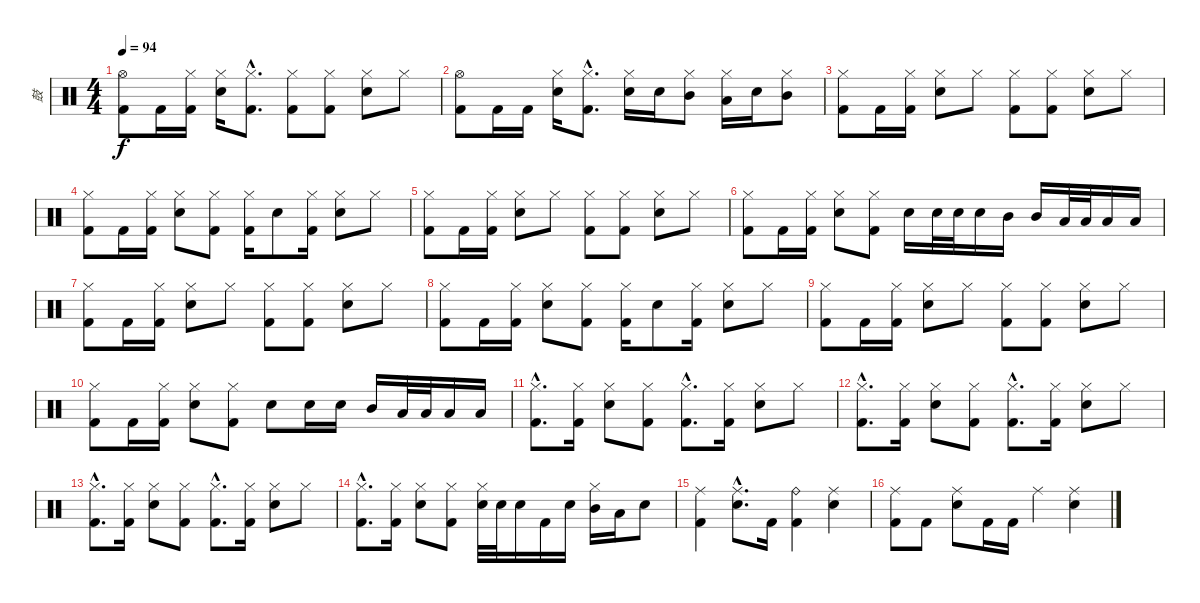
\track ("鼓" "鼓") {instrument percussion}
\staff {score}
\articulation defaults
\ts (4 4)
\tempo 94
\clef neutral
\ks c
("Hi-Hat (open)" "Kick (hit) 2").8{dy f} "Kick (hit) 2".16 ("Hi-Hat (closed)" "Kick (hit) 2").16 ("Hi-Hat (closed)" "Snare (hit) 2").16 ("Hi-Hat (closed)"{hac} "Kick (hit) 2"{hac}).8{d} ("Hi-Hat (closed)" "Kick (hit) 2").8 ("Hi-Hat (closed)" "Kick (hit) 2").8 ("Hi-Hat (closed)" "Snare (hit) 2").8 "Hi-Hat (closed)".8 |
("Hi-Hat (open)" "Kick (hit) 2").8 "Kick (hit) 2".16 "Kick (hit) 2".16 ("Hi-Hat (closed)" "Snare (hit) 2").16 ("Hi-Hat (closed)"{hac} "Kick (hit) 2"{hac}).8{d} ("Hi-Hat (closed)" "Snare (hit) 2").16 "Snare (hit) 2".16 ("Hi-Hat (closed)" "Mid Tom (hit)").8 ("Hi-Hat (closed)" "Low Tom (hit)").16 "Snare (hit) 2".16 ("Hi-Hat (closed)" "Mid Tom (hit)").8 |
("Hi-Hat (closed)" "Kick (hit) 2").8 "Kick (hit) 2".16 ("Hi-Hat (closed)" "Kick (hit) 2").16 ("Hi-Hat (closed)" "Snare (hit) 2").8 "Hi-Hat (closed)".8 ("Hi-Hat (closed)" "Kick (hit) 2").8 ("Hi-Hat (closed)" "Kick (hit) 2").8 ("Hi-Hat (closed)" "Snare (hit) 2").8 "Hi-Hat (closed)".8 |
("Hi-Hat (closed)" "Kick (hit) 2").8 "Kick (hit) 2".16 ("Hi-Hat (closed)" "Kick (hit) 2").16 ("Hi-Hat (closed)" "Snare (hit) 2").8 ("Hi-Hat (closed)" "Kick (hit) 2").8 ("Hi-Hat (closed)" "Kick (hit) 2").16 "Snare (hit) 2".8 ("Hi-Hat (closed)" "Kick (hit) 2").16 ("Hi-Hat (closed)" "Snare (hit) 2").8 "Hi-Hat (closed)".8 |
("Hi-Hat (closed)" "Kick (hit) 2").8 "Kick (hit) 2".16 ("Hi-Hat (closed)" "Kick (hit) 2").16 ("Hi-Hat (closed)" "Snare (hit) 2").8 "Hi-Hat (closed)".8 ("Hi-Hat (closed)" "Kick (hit) 2").8 ("Hi-Hat (closed)" "Kick (hit) 2").8 ("Hi-Hat (closed)" "Snare (hit) 2").8 "Hi-Hat (closed)".8 |
("Hi-Hat (closed)" "Kick (hit) 2").8 "Kick (hit) 2".16 ("Hi-Hat (closed)" "Kick (hit) 2").16 ("Hi-Hat (closed)" "Snare (hit) 2").8 ("Hi-Hat (closed)" "Kick (hit) 2").8 "Snare (hit) 2".16 "Snare (hit) 2".32 "Snare (hit) 2".32 "Snare (hit) 2".16 "Mid Tom (hit)".16 "Mid Tom (hit)".16 "Low Tom (hit)".32 "Low Tom (hit)".32 "Low Tom (hit)".16 "Low Floor Tom (hit)".16 |
("Hi-Hat (closed)" "Kick (hit) 2").8 "Kick (hit) 2".16 ("Hi-Hat (closed)" "Kick (hit) 2").16 ("Hi-Hat (closed)" "Snare (hit) 2").8 "Hi-Hat (closed)".8 ("Hi-Hat (closed)" "Kick (hit) 2").8 ("Hi-Hat (closed)" "Kick (hit) 2").8 ("Hi-Hat (closed)" "Snare (hit) 2").8 "Hi-Hat (closed)".8 |
("Hi-Hat (closed)" "Kick (hit) 2").8 "Kick (hit) 2".16 ("Hi-Hat (closed)" "Kick (hit) 2").16 ("Hi-Hat (closed)" "Snare (hit) 2").8 ("Hi-Hat (closed)" "Kick (hit) 2").8 ("Hi-Hat (closed)" "Kick (hit) 2").16 "Snare (hit) 2".8 ("Hi-Hat (closed)" "Kick (hit) 2").16 ("Hi-Hat (closed)" "Snare (hit) 2").8 "Hi-Hat (closed)".8 |
("Hi-Hat (closed)" "Kick (hit) 2").8 "Kick (hit) 2".16 ("Hi-Hat (closed)" "Kick (hit) 2").16 ("Hi-Hat (closed)" "Snare (hit) 2").8 "Hi-Hat (closed)".8 ("Hi-Hat (closed)" "Kick (hit) 2").8 ("Hi-Hat (closed)" "Kick (hit) 2").8 ("Hi-Hat (closed)" "Snare (hit) 2").8 "Hi-Hat (closed)".8 |
("Hi-Hat (closed)" "Kick (hit) 2").8 "Kick (hit) 2".16 ("Hi-Hat (closed)" "Kick (hit) 2").16 ("Hi-Hat (closed)" "Snare (hit) 2").8 ("Hi-Hat (closed)" "Kick (hit) 2").8 "Snare (hit) 2".8 "Snare (hit) 2".16 "Snare (hit) 2".16 "Mid Tom (hit)".16 "Low Tom (hit)".32 "Low Tom (hit)".32 "Low Tom (hit)".16 "Low Floor Tom (hit)".16 |
("Hi-Hat (closed)"{hac} "Kick (hit) 2"{hac}).8{d} ("Hi-Hat (closed)" "Kick (hit) 2").16 ("Hi-Hat (closed)" "Snare (hit) 2").8 ("Hi-Hat (closed)" "Kick (hit) 2").8 ("Hi-Hat (closed)"{hac} "Kick (hit) 2"{hac}).8{d} ("Hi-Hat (closed)" "Kick (hit) 2").16 ("Hi-Hat (closed)" "Snare (hit) 2").8 "Hi-Hat (closed)".8 |
("Hi-Hat (closed)"{hac} "Kick (hit) 2"{hac}).8{d} ("Hi-Hat (closed)" "Kick (hit) 2").16 ("Hi-Hat (closed)" "Snare (hit) 2").8 ("Hi-Hat (closed)" "Kick (hit) 2").8 ("Hi-Hat (closed)"{hac} "Kick (hit) 2"{hac}).8{d} ("Hi-Hat (closed)" "Kick (hit) 2").16 ("Hi-Hat (closed)" "Snare (hit) 2").8 "Hi-Hat (closed)".8 |
("Hi-Hat (closed)"{hac} "Kick (hit) 2"{hac}).8{d} ("Hi-Hat (closed)" "Kick (hit) 2").16 ("Hi-Hat (closed)" "Snare (hit) 2").8 ("Hi-Hat (closed)" "Kick (hit) 2").8 ("Hi-Hat (closed)"{hac} "Kick (hit) 2"{hac}).8{d} ("Hi-Hat (closed)" "Kick (hit) 2").16 ("Hi-Hat (closed)" "Snare (hit) 2").8 "Hi-Hat (closed)".8 |
("Hi-Hat (closed)"{hac} "Kick (hit) 2"{hac}).8{d} ("Hi-Hat (closed)" "Kick (hit) 2").16 ("Hi-Hat (closed)" "Snare (hit) 2").8 ("Hi-Hat (closed)" "Kick (hit) 2").8 ("Hi-Hat (closed)" "Snare (hit) 2").32 "Snare (hit) 2".32 "Snare (hit) 2".16 "Kick (hit) 2".16 "Snare (hit) 2".16 ("Hi-Hat (closed)" "Mid Tom (hit)").16 "Low Tom (hit)".16 "Snare (hit) 2".8 |
("Ride (middle)" "Kick (hit) 2").4 ("Ride (middle)"{hac} "Snare (hit) 2"{hac}).8{d} "Kick (hit) 2".16 ("Ride (bell)" "Kick (hit) 2").4 ("Ride (middle)" "Snare (hit) 2").4 |
("Ride (middle)" "Kick (hit) 2").8 "Kick (hit) 2".8 ("Ride (middle)" "Snare (hit) 2").8 "Kick (hit) 2".16 "Kick (hit) 2".16 "Ride (middle)".4 ("Ride (middle)" "Snare (hit) 2").4
